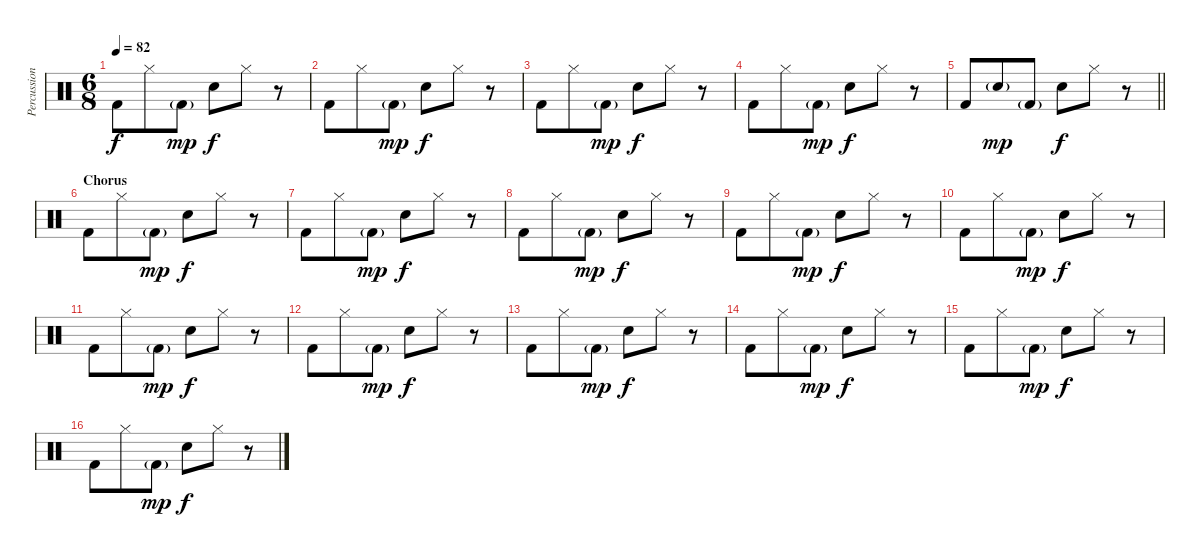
\track ("Percussion" "Percussion") {instrument percussion}
\staff {score}
\articulation defaults
\ts (6 8)
\tempo 82
\clef neutral
\ks c "Kick (hit) 2".8{dy f} "Hi-Hat (closed)".8 "Kick (hit) 2"{g}.8{dy mp} "Snare (hit) 2".8{dy f} "Hi-Hat (closed)".8
r.8 |
"Kick (hit) 2".8 "Hi-Hat (closed)".8 "Kick (hit) 2"{g}.8{dy mp} "Snare (hit) 2".8{dy f} "Hi-Hat (closed)".8 r.8 |
"Kick (hit) 2".8 "Hi-Hat (closed)".8 "Kick (hit) 2"{g}.8{dy mp} "Snare (hit) 2".8{dy f} "Hi-Hat (closed)".8 r.8 |
"Kick (hit) 2".8 "Hi-Hat (closed)".8 "Kick (hit) 2"{g}.8{dy mp} "Snare (hit) 2".8{dy f} "Hi-Hat (closed)".8 r.8 |
\barLineRight lightlight "Kick (hit) 2".8 "Snare (hit) 2"{g}.8{dy mp} "Kick (hit) 2"{g}.8 "Snare (hit) 2".8{dy f} "Hi-Hat (closed)".8
r.8 |
\section ("" "Chorus")
"Kick (hit) 2".8 "Hi-Hat (closed)".8 "Kick (hit) 2"{g}.8{dy mp} "Snare (hit) 2".8{dy f} "Hi-Hat (closed)".8 r.8 |
"Kick (hit) 2".8 "Hi-Hat (closed)".8 "Kick (hit) 2"{g}.8{dy mp} "Snare (hit) 2".8{dy f} "Hi-Hat (closed)".8 r.8 |
"Kick (hit) 2".8 "Hi-Hat (closed)".8 "Kick (hit) 2"{g}.8{dy mp} "Snare (hit) 2".8{dy f} "Hi-Hat (closed)".8 r.8 |
"Kick (hit) 2".8 "Hi-Hat (closed)".8 "Kick (hit) 2"{g}.8{dy mp} "Snare (hit) 2".8{dy f} "Hi-Hat (closed)".8 r.8 |
"Kick (hit) 2".8 "Hi-Hat (closed)".8 "Kick (hit) 2"{g}.8{dy mp} "Snare (hit) 2".8{dy f} "Hi-Hat (closed)".8 r.8 |
"Kick (hit) 2".8 "Hi-Hat (closed)".8 "Kick (hit) 2"{g}.8{dy mp} "Snare (hit) 2".8{dy f} "Hi-Hat (closed)".8 r.8 |
"Kick (hit) 2".8 "Hi-Hat (closed)".8 "Kick (hit) 2"{g}.8{dy mp} "Snare (hit) 2".8{dy f} "Hi-Hat (closed)".8 r.8 |
"Kick (hit) 2".8 "Hi-Hat (closed)".8 "Kick (hit) 2"{g}.8{dy mp} "Snare (hit) 2".8{dy f} "Hi-Hat (closed)".8 r.8 |
"Kick (hit) 2".8 "Hi-Hat (closed)".8 "Kick (hit) 2"{g}.8{dy mp} "Snare (hit) 2".8{dy f} "Hi-Hat (closed)".8 r.8 |
"Kick (hit) 2".8 "Hi-Hat (closed)".8 "Kick (hit) 2"{g}.8{dy mp} "Snare (hit) 2".8{dy f} "Hi-Hat (closed)".8 r.8 |
"Kick (hit) 2".8 "Hi-Hat (closed)".8 "Kick (hit) 2"{g}.8{dy mp} "Snare (hit) 2".8{dy f} "Hi-Hat (closed)".8 r.8
